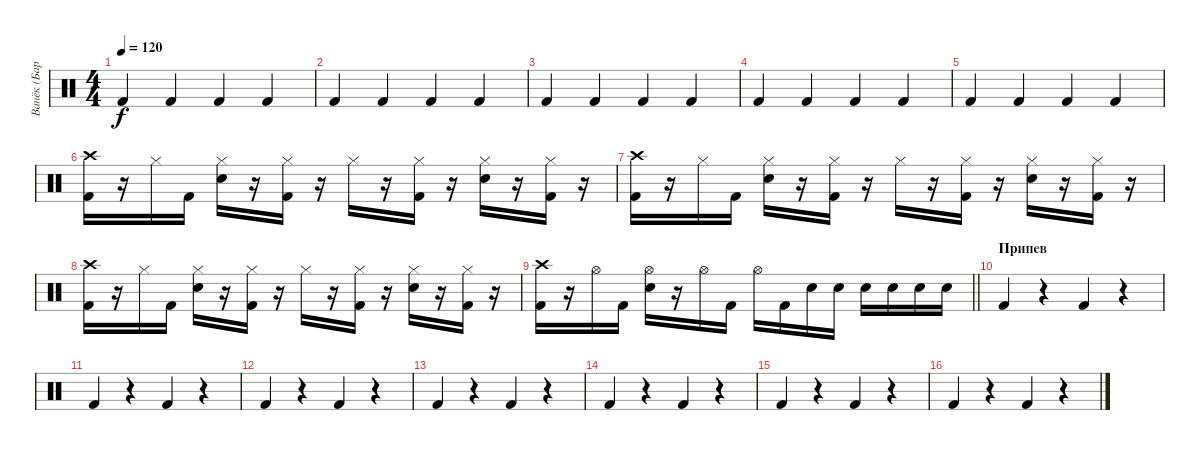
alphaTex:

\track ("Ванёк (Барабанщик)" "Ванёк (Бар") {instrument percussion}
\staff {score}
\articulation defaults
\ts (4 4)
\tempo 120
\clef neutral
\ks c "Kick (hit) 2".4{dy f} "Kick (hit) 2".4 "Kick (hit) 2".4 "Kick (hit) 2".4
|
"Kick (hit) 2".4 "Kick (hit) 2".4 "Kick (hit) 2".4 "Kick (hit) 2".4 |
"Kick (hit) 2".4 "Kick (hit) 2".4 "Kick (hit) 2".4 "Kick (hit) 2".4 |
"Kick (hit) 2".4 "Kick (hit) 2".4 "Kick (hit) 2".4 "Kick (hit) 2".4 |
"Kick (hit) 2".4 "Kick (hit) 2".4 "Kick (hit) 2".4 "Kick (hit) 2".4 |
("Crash high (hit)" "Kick (hit) 2").16 r.16 "Hi-Hat (closed)".16 "Kick (hit) 2".16 ("Hi-Hat (closed)" "Electric Snare (hit)").16 r.16 ("Hi-Hat (closed)" "Kick (hit) 2").16 r.16 "Hi-Hat (closed)".16 r.16 ("Hi-Hat (closed)" "Kick (hit) 2").16 r.16 ("Hi-Hat (closed)" "Electric Snare (hit)").16 r.16 ("Hi-Hat (closed)" "Kick (hit) 2").16 r.16 |
("Crash high (hit)" "Kick (hit) 2").16 r.16 "Hi-Hat (closed)".16 "Kick (hit) 2".16 ("Hi-Hat (closed)" "Electric Snare (hit)").16 r.16 ("Hi-Hat (closed)" "Kick (hit) 2").16 r.16 "Hi-Hat (closed)".16 r.16 ("Hi-Hat (closed)" "Kick (hit) 2").16 r.16 ("Hi-Hat (closed)" "Electric Snare (hit)").16 r.16 ("Hi-Hat (closed)" "Kick (hit) 2").16 r.16 |
("Crash high (hit)" "Kick (hit) 2").16 r.16 "Hi-Hat (closed)".16 "Kick (hit) 2".16 ("Hi-Hat (closed)" "Electric Snare (hit)").16 r.16 ("Hi-Hat (closed)" "Kick (hit) 2").16 r.16 "Hi-Hat (closed)".16 r.16 ("Hi-Hat (closed)" "Kick (hit) 2").16 r.16 ("Hi-Hat (closed)" "Electric Snare (hit)").16 r.16 ("Hi-Hat (closed)" "Kick (hit) 2").16 r.16 |
\barLineRight lightlight
("Crash high (hit)" "Kick (hit) 2").16 r.16 "Hi-Hat (open)".16 "Kick (hit) 2".16 ("Hi-Hat (open)" "Electric Snare (hit)").16 r.16 "Hi-Hat (open)".16 "Kick (hit) 2".16 "Hi-Hat (open)".16 "Kick (hit) 2".16 "Electric Snare (hit)".16 "Electric Snare (hit)".16 "Electric Snare (hit)".16 "Electric Snare (hit)".16 "Electric Snare (hit)".16 "Electric Snare (hit)".16 |
\section ("" "Припев")
"Kick (hit) 2".4 r.4 "Kick (hit) 2".4 r.4 |
"Kick (hit) 2".4 r.4 "Kick (hit) 2".4 r.4 |
"Kick (hit) 2".4 r.4 "Kick (hit) 2".4 r.4 |
"Kick (hit) 2".4 r.4 "Kick (hit) 2".4 r.4 |
"Kick (hit) 2".4 r.4 "Kick (hit) 2".4 r.4 |
"Kick (hit) 2".4 r.4 "Kick (hit) 2".4 r.4 |
"Kick (hit) 2".4 r.4 "Kick (hit) 2".4 r.4
